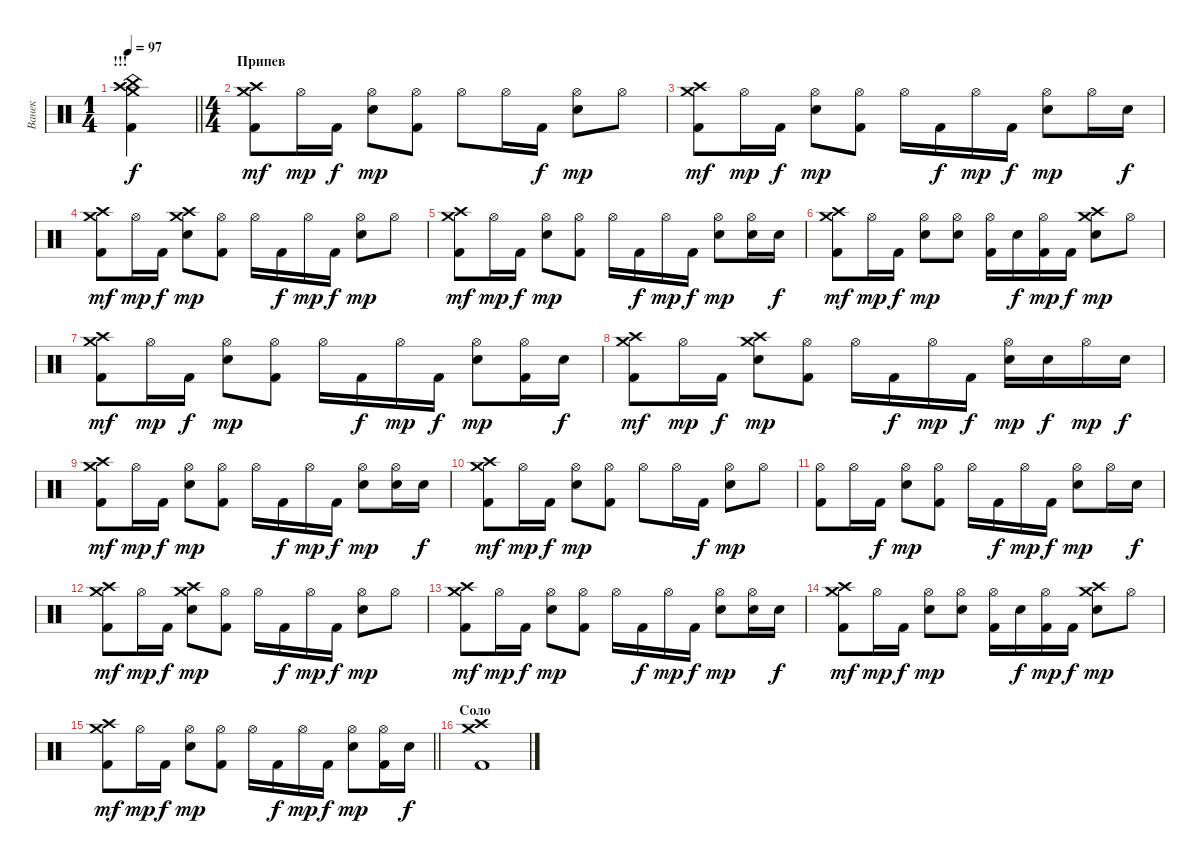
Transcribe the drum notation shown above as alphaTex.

\track ("Ванек" "Ванек") {instrument percussion}
\staff {score}
\articulation defaults
\ts (1 4)
\section ("" "!!!")
\tempo 97
\clef neutral
\barLineRight lightlight
\ks c
("Crash high (hit)" "Crash medium (hit)" "China (hit)" "Kick (hit) 2").4{dy f} |
\ts (4 4)
\section ("" "Припев")
("Crash high (hit)" "Crash medium (hit)" "Kick (hit) 2").8{dy mf} "Hi-Hat (open)".16{dy mp} "Kick (hit) 2".16{dy f} ("Hi-Hat (open)" "Snare (hit) 2").8{dy mp} ("Hi-Hat (open)" "Kick (hit) 2").8 "Hi-Hat (open)".8 "Hi-Hat (open)".16 "Kick (hit) 2".16{dy f} ("Hi-Hat (open)" "Snare (hit) 2").8{dy mp} "Hi-Hat (open)".8 |
("Crash high (hit)" "Crash medium (hit)" "Kick (hit) 2").8{dy mf} "Hi-Hat (open)".16{dy mp} "Kick (hit) 2".16{dy f} ("Hi-Hat (open)" "Snare (hit) 2").8{dy mp} ("Hi-Hat (open)" "Kick (hit) 2").8 "Hi-Hat (open)".16 "Kick (hit) 2".16{dy f} "Hi-Hat (open)".16{dy mp} "Kick (hit) 2".16{dy f} ("Hi-Hat (open)" "Snare (hit) 2").8{dy mp} "Hi-Hat (open)".16 "Snare (hit) 2".16{dy f} |
("Crash high (hit)" "Crash medium (hit)" "Kick (hit) 2").8{dy mf} "Hi-Hat (open)".16{dy mp} "Kick (hit) 2".16{dy f} ("Crash high (hit)" "Crash medium (hit)" "Snare (hit) 2").8{dy mp} ("Hi-Hat (open)" "Kick (hit) 2").8 "Hi-Hat (open)".16 "Kick (hit) 2".16{dy f} "Hi-Hat (open)".16{dy mp} "Kick (hit) 2".16{dy f} ("Hi-Hat (open)" "Snare (hit) 2").8{dy mp} "Hi-Hat (open)".8 |
("Crash high (hit)" "Crash medium (hit)" "Kick (hit) 2").8{dy mf} "Hi-Hat (open)".16{dy mp} "Kick (hit) 2".16{dy f} ("Hi-Hat (open)" "Snare (hit) 2").8{dy mp} ("Hi-Hat (open)" "Kick (hit) 2").8 "Hi-Hat (open)".16 "Kick (hit) 2".16{dy f} "Hi-Hat (open)".16{dy mp} "Kick (hit) 2".16{dy f} ("Hi-Hat (open)" "Snare (hit) 2").8{dy mp} ("Hi-Hat (open)" "Snare (hit) 2").16 "Snare (hit) 2".16{dy f} |
("Crash high (hit)" "Crash medium (hit)" "Kick (hit) 2").8{dy mf} "Hi-Hat (open)".16{dy mp} "Kick (hit) 2".16{dy f} ("Hi-Hat (open)" "Snare (hit) 2").8{dy mp} ("Hi-Hat (open)" "Snare (hit) 2").8 ("Hi-Hat (open)" "Kick (hit) 2").16 "Snare (hit) 2".16{dy f} ("Hi-Hat (open)" "Kick (hit) 2").16{dy mp} "Kick (hit) 2".16{dy f} ("Crash high (hit)" "Crash medium (hit)" "Snare (hit) 2").8{dy mp} "Hi-Hat (open)".8 |
("Crash high (hit)" "Crash medium (hit)" "Kick (hit) 2").8{dy mf} "Hi-Hat (open)".16{dy mp} "Kick (hit) 2".16{dy f} ("Hi-Hat (open)" "Snare (hit) 2").8{dy mp} ("Hi-Hat (open)" "Kick (hit) 2").8 "Hi-Hat (open)".16 "Kick (hit) 2".16{dy f} "Hi-Hat (open)".16{dy mp} "Kick (hit) 2".16{dy f} ("Hi-Hat (open)" "Snare (hit) 2").8{dy mp} ("Hi-Hat (open)" "Kick (hit) 2").16 "Snare (hit) 2".16{dy f} |
("Crash high (hit)" "Crash medium (hit)" "Kick (hit) 2").8{dy mf} "Hi-Hat (open)".16{dy mp} "Kick (hit) 2".16{dy f} ("Crash high (hit)" "Crash medium (hit)" "Snare (hit) 2").8{dy mp} ("Hi-Hat (open)" "Kick (hit) 2").8 "Hi-Hat (open)".16 "Kick (hit) 2".16{dy f} "Hi-Hat (open)".16{dy mp} "Kick (hit) 2".16{dy f} ("Hi-Hat (open)" "Snare (hit) 2").16{dy mp} "Snare (hit) 2".16{dy f} "Hi-Hat (open)".16{dy mp} "Snare (hit) 2".16{dy f} |
("Crash high (hit)" "Crash medium (hit)" "Kick (hit) 2").8{dy mf} "Hi-Hat (open)".16{dy mp} "Kick (hit) 2".16{dy f} ("Hi-Hat (open)" "Snare (hit) 2").8{dy mp} ("Hi-Hat (open)" "Kick (hit) 2").8 "Hi-Hat (open)".16 "Kick (hit) 2".16{dy f} "Hi-Hat (open)".16{dy mp} "Kick (hit) 2".16{dy f} ("Hi-Hat (open)" "Snare (hit) 2").8{dy mp} ("Hi-Hat (open)" "Snare (hit) 2").16 "Snare (hit) 2".16{dy f} |
("Crash high (hit)" "Crash medium (hit)" "Kick (hit) 2").8{dy mf} "Hi-Hat (open)".16{dy mp} "Kick (hit) 2".16{dy f} ("Hi-Hat (open)" "Snare (hit) 2").8{dy mp} ("Hi-Hat (open)" "Kick (hit) 2").8 "Hi-Hat (open)".8 "Hi-Hat (open)".16 "Kick (hit) 2".16{dy f} ("Hi-Hat (open)" "Snare (hit) 2").8{dy mp} "Hi-Hat (open)".8 |
("Hi-Hat (open)" "Kick (hit) 2").8 "Hi-Hat (open)".16 "Kick (hit) 2".16{dy f} ("Hi-Hat (open)" "Snare (hit) 2").8{dy mp} ("Hi-Hat (open)" "Kick (hit) 2").8 "Hi-Hat (open)".16 "Kick (hit) 2".16{dy f} "Hi-Hat (open)".16{dy mp} "Kick (hit) 2".16{dy f} ("Hi-Hat (open)" "Snare (hit) 2").8{dy mp} "Hi-Hat (open)".16 "Snare (hit) 2".16{dy f} |
("Crash high (hit)" "Crash medium (hit)" "Kick (hit) 2").8{dy mf} "Hi-Hat (open)".16{dy mp} "Kick (hit) 2".16{dy f} ("Crash high (hit)" "Crash medium (hit)" "Snare (hit) 2").8{dy mp} ("Hi-Hat (open)" "Kick (hit) 2").8 "Hi-Hat (open)".16 "Kick (hit) 2".16{dy f} "Hi-Hat (open)".16{dy mp} "Kick (hit) 2".16{dy f} ("Hi-Hat (open)" "Snare (hit) 2").8{dy mp} "Hi-Hat (open)".8 |
("Crash high (hit)" "Crash medium (hit)" "Kick (hit) 2").8{dy mf} "Hi-Hat (open)".16{dy mp} "Kick (hit) 2".16{dy f} ("Hi-Hat (open)" "Snare (hit) 2").8{dy mp} ("Hi-Hat (open)" "Kick (hit) 2").8 "Hi-Hat (open)".16 "Kick (hit) 2".16{dy f} "Hi-Hat (open)".16{dy mp} "Kick (hit) 2".16{dy f} ("Hi-Hat (open)" "Snare (hit) 2").8{dy mp} ("Hi-Hat (open)" "Snare (hit) 2").16 "Snare (hit) 2".16{dy f} |
("Crash high (hit)" "Crash medium (hit)" "Kick (hit) 2").8{dy mf} "Hi-Hat (open)".16{dy mp} "Kick (hit) 2".16{dy f} ("Hi-Hat (open)" "Snare (hit) 2").8{dy mp} ("Hi-Hat (open)" "Snare (hit) 2").8 ("Hi-Hat (open)" "Kick (hit) 2").16 "Snare (hit) 2".16{dy f} ("Hi-Hat (open)" "Kick (hit) 2").16{dy mp} "Kick (hit) 2".16{dy f} ("Crash high (hit)" "Crash medium (hit)" "Snare (hit) 2").8{dy mp} "Hi-Hat (open)".8 |
\barLineRight lightlight
("Crash high (hit)" "Crash medium (hit)" "Kick (hit) 2").8{dy mf} "Hi-Hat (open)".16{dy mp} "Kick (hit) 2".16{dy f} ("Hi-Hat (open)" "Snare (hit) 2").8{dy mp} ("Hi-Hat (open)" "Kick (hit) 2").8 "Hi-Hat (open)".16 "Kick (hit) 2".16{dy f} "Hi-Hat (open)".16{dy mp} "Kick (hit) 2".16{dy f} ("Hi-Hat (open)" "Snare (hit) 2").8{dy mp} ("Hi-Hat (open)" "Kick (hit) 2").16 "Snare (hit) 2".16{dy f} |
\section ("" "Соло")
("Crash high (hit)" "Crash medium (hit)" "Kick (hit) 2").1
